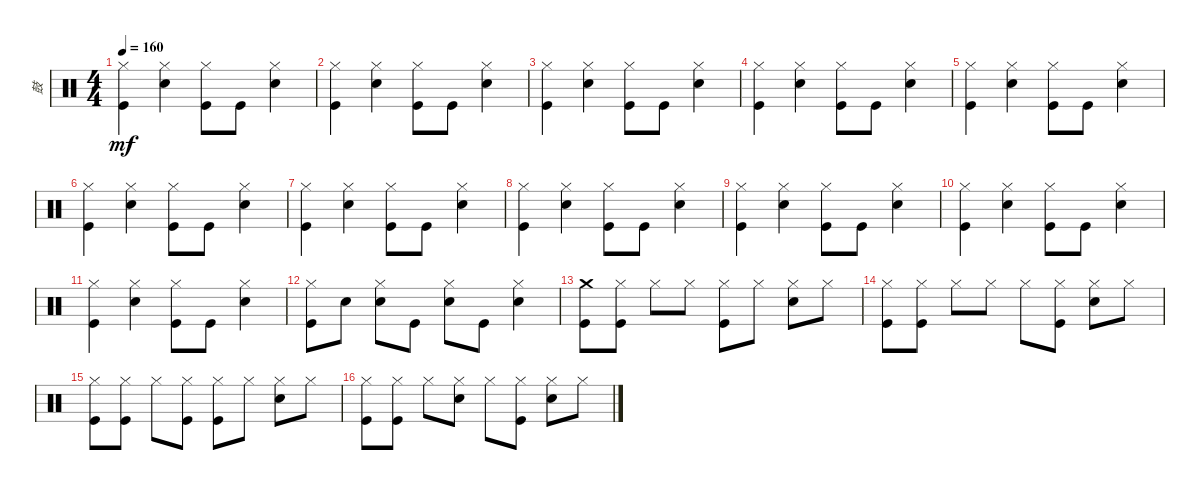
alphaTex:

\track ("鼓" "鼓") {instrument percussion}
\staff {score}
\articulation defaults
\ts (4 4)
\tempo 160
\clef neutral
\ks c
("Kick (hit)" "Hi-Hat (closed)").4{dy mf} ("Hi-Hat (closed)" "Snare (hit) 2").4 ("Kick (hit)" "Hi-Hat (closed)").8 "Kick (hit)".8 ("Snare (hit) 2" "Hi-Hat (closed)").4 |
("Kick (hit)" "Hi-Hat (closed)").4 ("Hi-Hat (closed)" "Snare (hit) 2").4 ("Kick (hit)" "Hi-Hat (closed)").8 "Kick (hit)".8 ("Snare (hit) 2" "Hi-Hat (closed)").4 |
("Kick (hit)" "Hi-Hat (closed)").4 ("Hi-Hat (closed)" "Snare (hit) 2").4 ("Kick (hit)" "Hi-Hat (closed)").8 "Kick (hit)".8 ("Snare (hit) 2" "Hi-Hat (closed)").4 |
("Kick (hit)" "Hi-Hat (closed)").4 ("Hi-Hat (closed)" "Snare (hit) 2").4 ("Kick (hit)" "Hi-Hat (closed)").8 "Kick (hit)".8 ("Snare (hit) 2" "Hi-Hat (closed)").4 |
("Kick (hit)" "Hi-Hat (closed)").4 ("Hi-Hat (closed)" "Snare (hit) 2").4 ("Kick (hit)" "Hi-Hat (closed)").8 "Kick (hit)".8 ("Snare (hit) 2" "Hi-Hat (closed)").4 |
("Kick (hit)" "Hi-Hat (closed)").4 ("Hi-Hat (closed)" "Snare (hit) 2").4 ("Kick (hit)" "Hi-Hat (closed)").8 "Kick (hit)".8 ("Snare (hit) 2" "Hi-Hat (closed)").4 |
("Kick (hit)" "Hi-Hat (closed)").4 ("Hi-Hat (closed)" "Snare (hit) 2").4 ("Kick (hit)" "Hi-Hat (closed)").8 "Kick (hit)".8 ("Snare (hit) 2" "Hi-Hat (closed)").4 |
("Kick (hit)" "Hi-Hat (closed)").4 ("Hi-Hat (closed)" "Snare (hit) 2").4 ("Kick (hit)" "Hi-Hat (closed)").8 "Kick (hit)".8 ("Snare (hit) 2" "Hi-Hat (closed)").4 |
("Kick (hit)" "Hi-Hat (closed)").4 ("Hi-Hat (closed)" "Snare (hit) 2").4 ("Kick (hit)" "Hi-Hat (closed)").8 "Kick (hit)".8 ("Snare (hit) 2" "Hi-Hat (closed)").4 |
("Kick (hit)" "Hi-Hat (closed)").4 ("Hi-Hat (closed)" "Snare (hit) 2").4 ("Kick (hit)" "Hi-Hat (closed)").8 "Kick (hit)".8 ("Snare (hit) 2" "Hi-Hat (closed)").4 |
("Kick (hit)" "Hi-Hat (closed)").4 ("Hi-Hat (closed)" "Snare (hit) 2").4 ("Kick (hit)" "Hi-Hat (closed)").8 "Kick (hit)".8 ("Snare (hit) 2" "Hi-Hat (closed)").4 |
("Kick (hit)" "Hi-Hat (closed)").8 "Snare (hit) 2".8 ("Snare (hit) 2" "Hi-Hat (closed)").8 "Kick (hit)".8 ("Snare (hit) 2" "Hi-Hat (closed)").8 "Kick (hit)".8 ("Snare (hit) 2" "Hi-Hat (closed)").4 |
("Kick (hit)" "Crash medium (hit)").8 ("Kick (hit)" "Hi-Hat (closed)").8 "Hi-Hat (closed)".8 "Hi-Hat (closed)".8 ("Kick (hit)" "Hi-Hat (closed)").8 "Hi-Hat (closed)".8 ("Snare (hit) 2" "Hi-Hat (closed)").8 "Hi-Hat (closed)".8 |
("Kick (hit)" "Hi-Hat (closed)").8 ("Kick (hit)" "Hi-Hat (closed)").8 "Hi-Hat (closed)".8 "Hi-Hat (closed)".8 "Hi-Hat (closed)".8 ("Hi-Hat (closed)" "Kick (hit)").8 ("Snare (hit) 2" "Hi-Hat (closed)").8 "Hi-Hat (closed)".8 |
("Kick (hit)" "Hi-Hat (closed)").8 ("Kick (hit)" "Hi-Hat (closed)").8 "Hi-Hat (closed)".8 ("Hi-Hat (closed)" "Kick (hit)").8 ("Hi-Hat (closed)" "Kick (hit)").8 "Hi-Hat (closed)".8 ("Snare (hit) 2" "Hi-Hat (closed)").8 "Hi-Hat (closed)".8 |
("Kick (hit)" "Hi-Hat (closed)").8 ("Kick (hit)" "Hi-Hat (closed)").8 "Hi-Hat (closed)".8 ("Hi-Hat (closed)" "Snare (hit) 2").8 "Hi-Hat (closed)".8 ("Hi-Hat (closed)" "Kick (hit)").8 ("Snare (hit) 2" "Hi-Hat (closed)").8 "Hi-Hat (closed)".8
